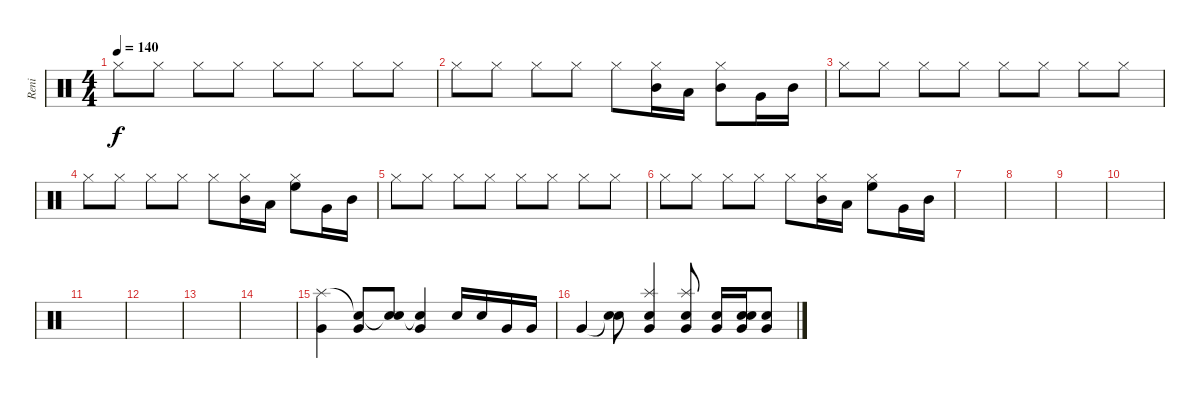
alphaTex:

\track ("Reni" "Reni") {instrument percussion}
\staff {score}
\articulation defaults
\ts (4 4)
\tempo 140
\clef neutral
\ks c "Hi-Hat (closed)".8{dy f} "Hi-Hat (closed)".8 "Hi-Hat (closed)".8 "Hi-Hat (closed)".8 "Hi-Hat (closed)".8 "Hi-Hat (closed)".8 "Hi-Hat (closed)".8 "Hi-Hat (closed)".8
|
"Hi-Hat (closed)".8 "Hi-Hat (closed)".8 "Hi-Hat (closed)".8 "Hi-Hat (closed)".8 "Hi-Hat (closed)".8 ("Hi-Hat (closed)" "Mid Tom (hit)").16 "Low Tom (hit)".16 ("Hi-Hat (closed)" "Mid Tom (hit)").8 "Very Low Tom (hit)".16 "Mid Tom (hit)".16 |
"Hi-Hat (closed)".8 "Hi-Hat (closed)".8 "Hi-Hat (closed)".8 "Hi-Hat (closed)".8 "Hi-Hat (closed)".8 "Hi-Hat (closed)".8 "Hi-Hat (closed)".8 "Hi-Hat (closed)".8 |
"Hi-Hat (closed)".8 "Hi-Hat (closed)".8 "Hi-Hat (closed)".8 "Hi-Hat (closed)".8 "Hi-Hat (closed)".8 ("Hi-Hat (closed)" "Mid Tom (hit)").16 "Low Tom (hit)".16 ("Hi-Hat (closed)" "High Floor Tom (hit)").8 "Very Low Tom (hit)".16 "Mid Tom (hit)".16 |
"Hi-Hat (closed)".8 "Hi-Hat (closed)".8 "Hi-Hat (closed)".8 "Hi-Hat (closed)".8 "Hi-Hat (closed)".8 "Hi-Hat (closed)".8 "Hi-Hat (closed)".8 "Hi-Hat (closed)".8 |
"Hi-Hat (closed)".8 "Hi-Hat (closed)".8 "Hi-Hat (closed)".8 "Hi-Hat (closed)".8 "Hi-Hat (closed)".8 ("Hi-Hat (closed)" "Mid Tom (hit)").16 "Low Tom (hit)".16 ("Hi-Hat (closed)" "High Floor Tom (hit)").8 "Very Low Tom (hit)".16 "Mid Tom (hit)".16 |
|
|
|
|
|
|
|
|
("Splash (hit)" "Very Low Tom (hit)").4 ("Snare (hit)"{t} "Very Low Tom (hit)").8 ("Snare (hit)"{t} "Electric Snare (hit)").8 ("Snare (hit)"{t} "Very Low Tom (hit)").4 "Snare (hit) 2".16 "Electric Snare (hit)".16 "Very Low Tom (hit)".16 "Very Low Tom (hit)".16 |
"Very Low Tom (hit)".4 ("Snare (hit)"{t} "Snare (hit) 2").8 ("Splash (hit)" "Electric Snare (hit)" "Very Low Tom (hit)").4 ("Splash (hit)" "Electric Snare (hit)" "Very Low Tom (hit)").8 ("Snare (hit) 2" "Very Low Tom (hit)").16 ("Electric Snare (hit)" "Electric Snare (hit)" "Very Low Tom (hit)").16 ("Electric Snare (hit)" "Very Low Tom (hit)").8
